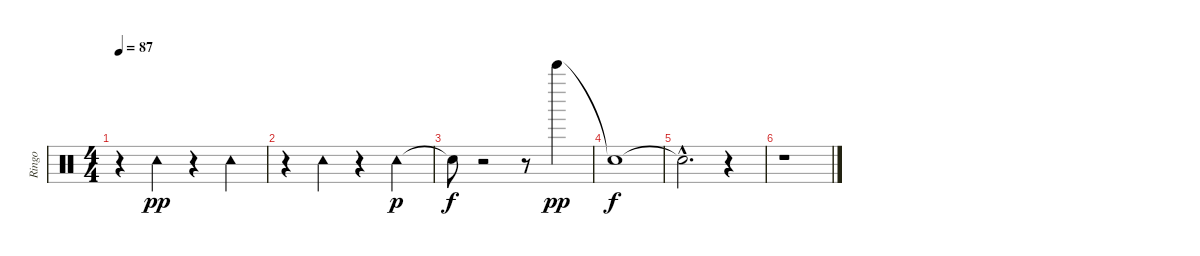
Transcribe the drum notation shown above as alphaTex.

\track ("Ringo" "Ringo") {instrument percussion}
\staff {score}
\articulation defaults
\ts (4 4)
\tempo 87
\clef neutral
\ks c
r.4{dy pp} "Tambourine (hit)".4 r.4 "Tambourine (hit)".4 |
r.4 "Tambourine (hit)".4 r.4 "Tambourine (hit)".4{dy p} |
"Snare (hit)"{t}.8{dy f} r.2 r.8 "Bell Tree (hit)".4{dy pp} |
"Snare (hit)"{t}.1{dy f} |
"Snare (hit)"{hac t}.2{d} r.4 |
r.1
